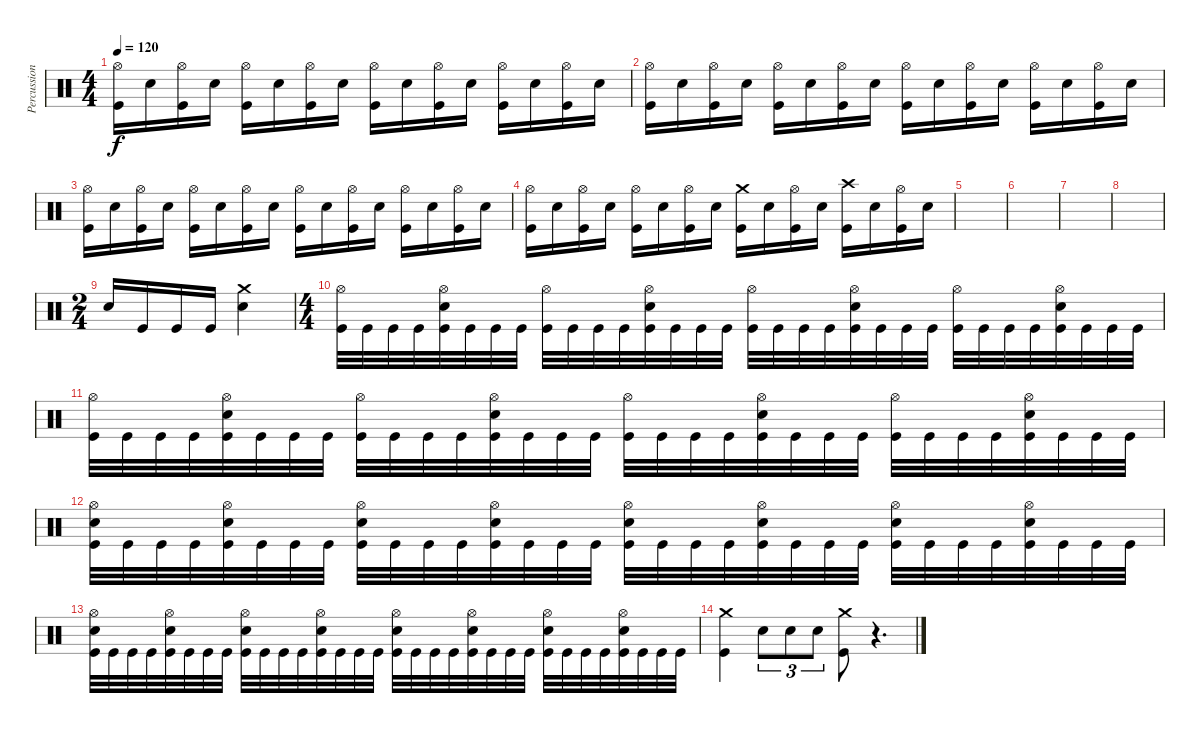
\track ("Percussion" "Percussion") {instrument percussion}
\staff {score}
\articulation defaults
\ts (4 4)
\tempo 120
\clef neutral
\ks c
("Hi-Hat (open)" "Kick (hit)").16{dy f} "Snare (hit) 2".16 ("Hi-Hat (open)" "Kick (hit)").16 "Snare (hit) 2".16 ("Hi-Hat (open)" "Kick (hit)").16 "Snare (hit) 2".16 ("Hi-Hat (open)" "Kick (hit)").16 "Snare (hit) 2".16 ("Hi-Hat (open)" "Kick (hit)").16 "Snare (hit) 2".16 ("Hi-Hat (open)" "Kick (hit)").16 "Snare (hit) 2".16 ("Hi-Hat (open)" "Kick (hit)").16 "Snare (hit) 2".16 ("Hi-Hat (open)" "Kick (hit)").16 "Snare (hit) 2".16 |
("Hi-Hat (open)" "Kick (hit)").16 "Snare (hit) 2".16 ("Hi-Hat (open)" "Kick (hit)").16 "Snare (hit) 2".16 ("Hi-Hat (open)" "Kick (hit)").16 "Snare (hit) 2".16 ("Hi-Hat (open)" "Kick (hit)").16 "Snare (hit) 2".16 ("Hi-Hat (open)" "Kick (hit)").16 "Snare (hit) 2".16 ("Hi-Hat (open)" "Kick (hit)").16 "Snare (hit) 2".16 ("Hi-Hat (open)" "Kick (hit)").16 "Snare (hit) 2".16 ("Hi-Hat (open)" "Kick (hit)").16 "Snare (hit) 2".16 |
("Hi-Hat (open)" "Kick (hit)").16 "Snare (hit) 2".16 ("Hi-Hat (open)" "Kick (hit)").16 "Snare (hit) 2".16 ("Hi-Hat (open)" "Kick (hit)").16 "Snare (hit) 2".16 ("Hi-Hat (open)" "Kick (hit)").16 "Snare (hit) 2".16 ("Hi-Hat (open)" "Kick (hit)").16 "Snare (hit) 2".16 ("Hi-Hat (open)" "Kick (hit)").16 "Snare (hit) 2".16 ("Hi-Hat (open)" "Kick (hit)").16 "Snare (hit) 2".16 ("Hi-Hat (open)" "Kick (hit)").16 "Snare (hit) 2".16 |
("Hi-Hat (open)" "Kick (hit)").16 "Snare (hit) 2".16 ("Hi-Hat (open)" "Kick (hit)").16 "Snare (hit) 2".16 ("Hi-Hat (open)" "Kick (hit)").16 "Snare (hit) 2".16 ("Hi-Hat (open)" "Kick (hit)").16 "Snare (hit) 2".16 ("Crash medium (hit)" "Kick (hit)").16 "Snare (hit) 2".16 ("Hi-Hat (open)" "Kick (hit)").16 "Snare (hit) 2".16 ("Crash high (hit)" "Kick (hit)").16 "Snare (hit) 2".16 ("Hi-Hat (open)" "Kick (hit)").16 "Snare (hit) 2".16 |
|
|
|
|
\ts (2 4)
"Snare (hit) 2".16 "Kick (hit)".16 "Kick (hit)".16 "Kick (hit)".16 ("Crash medium (hit)" "Snare (hit) 2").4 |
\ts (4 4)
("Hi-Hat (open)" "Kick (hit)").32 "Kick (hit)".32 "Kick (hit)".32 "Kick (hit)".32 ("Hi-Hat (open)" "Snare (hit) 2" "Kick (hit)").32 "Kick (hit)".32 "Kick (hit)".32 "Kick (hit)".32 ("Hi-Hat (open)" "Kick (hit)").32 "Kick (hit)".32 "Kick (hit)".32 "Kick (hit)".32 ("Hi-Hat (open)" "Snare (hit) 2" "Kick (hit)").32 "Kick (hit)".32 "Kick (hit)".32 "Kick (hit)".32 ("Hi-Hat (open)" "Kick (hit)").32 "Kick (hit)".32 "Kick (hit)".32 "Kick (hit)".32 ("Hi-Hat (open)" "Snare (hit) 2" "Kick (hit)").32 "Kick (hit)".32 "Kick (hit)".32 "Kick (hit)".32 ("Hi-Hat (open)" "Kick (hit)").32 "Kick (hit)".32 "Kick (hit)".32 "Kick (hit)".32 ("Hi-Hat (open)" "Snare (hit) 2" "Kick (hit)").32 "Kick (hit)".32 "Kick (hit)".32 "Kick (hit)".32 |
("Hi-Hat (open)" "Kick (hit)").32 "Kick (hit)".32 "Kick (hit)".32 "Kick (hit)".32 ("Hi-Hat (open)" "Snare (hit) 2" "Kick (hit)").32 "Kick (hit)".32 "Kick (hit)".32 "Kick (hit)".32 ("Hi-Hat (open)" "Kick (hit)").32 "Kick (hit)".32 "Kick (hit)".32 "Kick (hit)".32 ("Hi-Hat (open)" "Snare (hit) 2" "Kick (hit)").32 "Kick (hit)".32 "Kick (hit)".32 "Kick (hit)".32 ("Hi-Hat (open)" "Kick (hit)").32 "Kick (hit)".32 "Kick (hit)".32 "Kick (hit)".32 ("Hi-Hat (open)" "Snare (hit) 2" "Kick (hit)").32 "Kick (hit)".32 "Kick (hit)".32 "Kick (hit)".32 ("Hi-Hat (open)" "Kick (hit)").32 "Kick (hit)".32 "Kick (hit)".32 "Kick (hit)".32 ("Hi-Hat (open)" "Snare (hit) 2" "Kick (hit)").32 "Kick (hit)".32 "Kick (hit)".32 "Kick (hit)".32 |
("Hi-Hat (open)" "Snare (hit) 2" "Kick (hit)").32 "Kick (hit)".32 "Kick (hit)".32 "Kick (hit)".32 ("Hi-Hat (open)" "Snare (hit) 2" "Kick (hit)").32 "Kick (hit)".32 "Kick (hit)".32 "Kick (hit)".32 ("Hi-Hat (open)" "Snare (hit) 2" "Kick (hit)").32 "Kick (hit)".32 "Kick (hit)".32 "Kick (hit)".32 ("Hi-Hat (open)" "Snare (hit) 2" "Kick (hit)").32 "Kick (hit)".32 "Kick (hit)".32 "Kick (hit)".32 ("Hi-Hat (open)" "Snare (hit) 2" "Kick (hit)").32 "Kick (hit)".32 "Kick (hit)".32 "Kick (hit)".32 ("Hi-Hat (open)" "Snare (hit) 2" "Kick (hit)").32 "Kick (hit)".32 "Kick (hit)".32 "Kick (hit)".32 ("Hi-Hat (open)" "Snare (hit) 2" "Kick (hit)").32 "Kick (hit)".32 "Kick (hit)".32 "Kick (hit)".32 ("Hi-Hat (open)" "Snare (hit) 2" "Kick (hit)").32 "Kick (hit)".32 "Kick (hit)".32 "Kick (hit)".32 |
("Hi-Hat (open)" "Snare (hit) 2" "Kick (hit)").32 "Kick (hit)".32 "Kick (hit)".32 "Kick (hit)".32 ("Hi-Hat (open)" "Snare (hit) 2" "Kick (hit)").32 "Kick (hit)".32 "Kick (hit)".32 "Kick (hit)".32 ("Hi-Hat (open)" "Snare (hit) 2" "Kick (hit)").32 "Kick (hit)".32 "Kick (hit)".32 "Kick (hit)".32 ("Hi-Hat (open)" "Snare (hit) 2" "Kick (hit)").32 "Kick (hit)".32 "Kick (hit)".32 "Kick (hit)".32 ("Hi-Hat (open)" "Snare (hit) 2" "Kick (hit)").32 "Kick (hit)".32 "Kick (hit)".32 "Kick (hit)".32 ("Hi-Hat (open)" "Snare (hit) 2" "Kick (hit)").32 "Kick (hit)".32 "Kick (hit)".32 "Kick (hit)".32 ("Hi-Hat (open)" "Snare (hit) 2" "Kick (hit)").32 "Kick (hit)".32 "Kick (hit)".32 "Kick (hit)".32 ("Hi-Hat (open)" "Snare (hit) 2" "Kick (hit)").32 "Kick (hit)".32 "Kick (hit)".32 "Kick (hit)".32 |
("Crash medium (hit)" "Kick (hit)").4 "Snare (hit) 2".8{tu (3 2)} "Snare (hit) 2".8{tu (3 2)} "Snare (hit) 2".8{tu (3 2)} ("Crash medium (hit)" "Kick (hit)").8 r.4{d volume 0}
